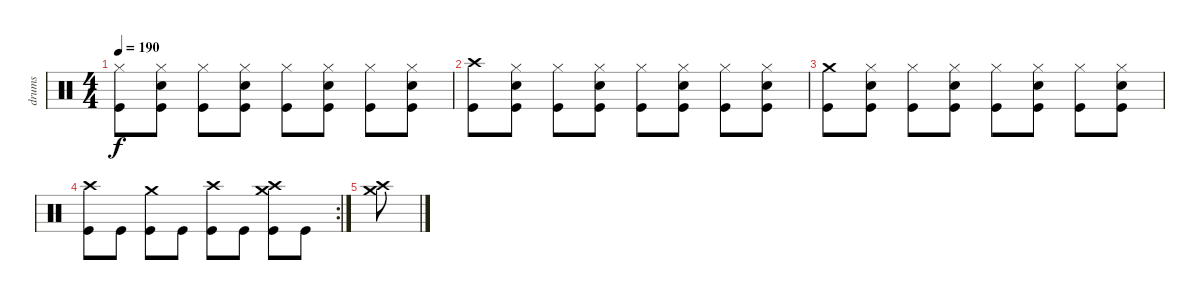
\track ("drums" "drums") {instrument percussion}
\staff {score}
\articulation defaults
\ts (4 4)
\tempo 190
\clef neutral
\ks c
("Hi-Hat (closed)" "Kick (hit)").8{dy f} ("Hi-Hat (closed)" "Snare (hit) 2" "Kick (hit)").8 ("Hi-Hat (closed)" "Kick (hit)").8 ("Hi-Hat (closed)" "Snare (hit) 2" "Kick (hit)").8 ("Hi-Hat (closed)" "Kick (hit)").8 ("Hi-Hat (closed)" "Snare (hit) 2" "Kick (hit)").8 ("Hi-Hat (closed)" "Kick (hit)").8 ("Hi-Hat (closed)" "Snare (hit) 2" "Kick (hit)").8 |
("Crash high (hit)" "Kick (hit)").8 ("Hi-Hat (closed)" "Snare (hit) 2" "Kick (hit)").8 ("Hi-Hat (closed)" "Kick (hit)").8 ("Hi-Hat (closed)" "Snare (hit) 2" "Kick (hit)").8 ("Hi-Hat (closed)" "Kick (hit)").8 ("Hi-Hat (closed)" "Snare (hit) 2" "Kick (hit)").8 ("Hi-Hat (closed)" "Kick (hit)").8 ("Hi-Hat (closed)" "Snare (hit) 2" "Kick (hit)").8 |
("Crash medium (hit)" "Kick (hit)").8 ("Hi-Hat (closed)" "Snare (hit) 2" "Kick (hit)").8 ("Hi-Hat (closed)" "Kick (hit)").8 ("Hi-Hat (closed)" "Snare (hit) 2" "Kick (hit)").8 ("Hi-Hat (closed)" "Kick (hit)").8 ("Hi-Hat (closed)" "Snare (hit) 2" "Kick (hit)").8 ("Hi-Hat (closed)" "Kick (hit)").8 ("Hi-Hat (closed)" "Snare (hit) 2" "Kick (hit)").8 |
\rc 2
("Crash high (hit)" "Kick (hit)").8 "Kick (hit)".8 ("Crash medium (hit)" "Kick (hit)").8 "Kick (hit)".8 ("Crash high (hit)" "Kick (hit)").8 "Kick (hit)".8 ("Crash high (hit)" "Crash medium (hit)" "Kick (hit)").8 "Kick (hit)".8 |
("Crash high (hit)" "Crash medium (hit)").8
